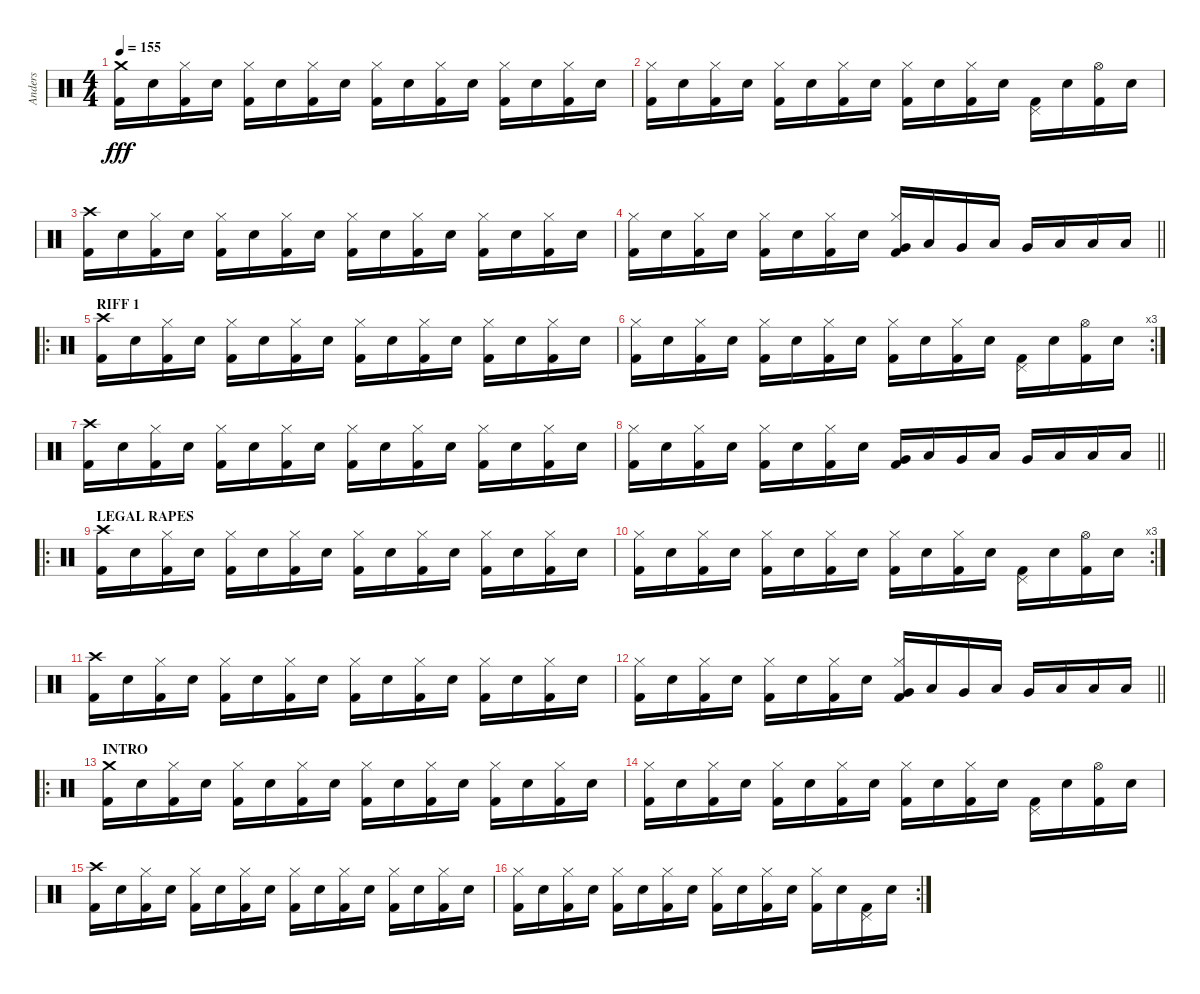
\track ("Anders" "Anders") {instrument percussion}
\staff {score}
\articulation defaults
\ts (4 4)
\tempo 155
\clef neutral
\ks c
("Crash medium (hit)" "Kick (hit) 2").16{dy fff} "Snare (hit) 2".16 ("Hi-Hat (closed)" "Kick (hit) 2").16 "Snare (hit) 2".16 ("Hi-Hat (closed)" "Kick (hit) 2").16 "Snare (hit) 2".16 ("Hi-Hat (closed)" "Kick (hit) 2").16 "Snare (hit) 2".16 ("Hi-Hat (closed)" "Kick (hit) 2").16 "Snare (hit) 2".16 ("Hi-Hat (closed)" "Kick (hit) 2").16 "Snare (hit) 2".16 ("Hi-Hat (closed)" "Kick (hit) 2").16 "Snare (hit) 2".16 ("Hi-Hat (closed)" "Kick (hit) 2").16 "Snare (hit) 2".16 |
("Hi-Hat (closed)" "Kick (hit) 2").16 "Snare (hit) 2".16 ("Hi-Hat (closed)" "Kick (hit) 2").16 "Snare (hit) 2".16 ("Hi-Hat (closed)" "Kick (hit) 2").16 "Snare (hit) 2".16 ("Hi-Hat (closed)" "Kick (hit) 2").16 "Snare (hit) 2".16 ("Hi-Hat (closed)" "Kick (hit) 2").16 "Snare (hit) 2".16 ("Hi-Hat (closed)" "Kick (hit) 2").16 "Snare (hit) 2".16 ("Pedal Hi-Hat (hit)" "Kick (hit) 2").16 "Snare (hit) 2".16 ("Hi-Hat (open)" "Kick (hit) 2").16 "Snare (hit) 2".16 |
("Crash high (hit)" "Kick (hit) 2").16 "Snare (hit) 2".16 ("Hi-Hat (closed)" "Kick (hit) 2").16 "Snare (hit) 2".16 ("Hi-Hat (closed)" "Kick (hit) 2").16 "Snare (hit) 2".16 ("Hi-Hat (closed)" "Kick (hit) 2").16 "Snare (hit) 2".16 ("Hi-Hat (closed)" "Kick (hit) 2").16 "Snare (hit) 2".16 ("Hi-Hat (closed)" "Kick (hit) 2").16 "Snare (hit) 2".16 ("Hi-Hat (closed)" "Kick (hit) 2").16 "Snare (hit) 2".16 ("Hi-Hat (closed)" "Kick (hit) 2").16 "Snare (hit) 2".16 |
\barLineRight lightlight
("Hi-Hat (closed)" "Kick (hit) 2").16 "Snare (hit) 2".16 ("Hi-Hat (closed)" "Kick (hit) 2").16 "Snare (hit) 2".16 ("Hi-Hat (closed)" "Kick (hit) 2").16 "Snare (hit) 2".16 ("Hi-Hat (closed)" "Kick (hit) 2").16 "Snare (hit) 2".16 ("Hi-Hat (closed)" "Very Low Tom (hit)" "Kick (hit) 2").16 "Low Tom (hit)".16 "Very Low Tom (hit)".16 "Low Tom (hit)".16 "Very Low Tom (hit)".16 "Low Tom (hit)".16 "Low Floor Tom (hit)".16 "Low Tom (hit)".16 |
\ro
\section ("" "RIFF 1")
("Crash high (hit)" "Kick (hit) 2").16 "Snare (hit) 2".16 ("Hi-Hat (closed)" "Kick (hit) 2").16 "Snare (hit) 2".16 ("Hi-Hat (closed)" "Kick (hit) 2").16 "Snare (hit) 2".16 ("Hi-Hat (closed)" "Kick (hit) 2").16 "Snare (hit) 2".16 ("Hi-Hat (closed)" "Kick (hit) 2").16 "Snare (hit) 2".16 ("Hi-Hat (closed)" "Kick (hit) 2").16 "Snare (hit) 2".16 ("Hi-Hat (closed)" "Kick (hit) 2").16 "Snare (hit) 2".16 ("Hi-Hat (closed)" "Kick (hit) 2").16 "Snare (hit) 2".16 |
\rc 3
("Hi-Hat (closed)" "Kick (hit) 2").16 "Snare (hit) 2".16 ("Hi-Hat (closed)" "Kick (hit) 2").16 "Snare (hit) 2".16 ("Hi-Hat (closed)" "Kick (hit) 2").16 "Snare (hit) 2".16 ("Hi-Hat (closed)" "Kick (hit) 2").16 "Snare (hit) 2".16 ("Hi-Hat (closed)" "Kick (hit) 2").16 "Snare (hit) 2".16 ("Hi-Hat (closed)" "Kick (hit) 2").16 "Snare (hit) 2".16 ("Pedal Hi-Hat (hit)" "Kick (hit) 2").16 "Snare (hit) 2".16 ("Hi-Hat (open)" "Kick (hit) 2").16 "Snare (hit) 2".16 |
("Crash high (hit)" "Kick (hit) 2").16 "Snare (hit) 2".16 ("Hi-Hat (closed)" "Kick (hit) 2").16 "Snare (hit) 2".16 ("Hi-Hat (closed)" "Kick (hit) 2").16 "Snare (hit) 2".16 ("Hi-Hat (closed)" "Kick (hit) 2").16 "Snare (hit) 2".16 ("Hi-Hat (closed)" "Kick (hit) 2").16 "Snare (hit) 2".16 ("Hi-Hat (closed)" "Kick (hit) 2").16 "Snare (hit) 2".16 ("Hi-Hat (closed)" "Kick (hit) 2").16 "Snare (hit) 2".16 ("Hi-Hat (closed)" "Kick (hit) 2").16 "Snare (hit) 2".16 |
\barLineRight lightlight
("Hi-Hat (closed)" "Kick (hit) 2").16 "Snare (hit) 2".16 ("Hi-Hat (closed)" "Kick (hit) 2").16 "Snare (hit) 2".16 ("Hi-Hat (closed)" "Kick (hit) 2").16 "Snare (hit) 2".16 ("Hi-Hat (closed)" "Kick (hit) 2").16 "Snare (hit) 2".16 ("Very Low Tom (hit)" "Kick (hit) 2").16 "Low Tom (hit)".16 "Very Low Tom (hit)".16 "Low Tom (hit)".16 "Very Low Tom (hit)".16 "Low Tom (hit)".16 "Low Floor Tom (hit)".16 "Low Tom (hit)".16 |
\ro
\section ("" "LEGAL RAPES")
("Crash high (hit)" "Kick (hit) 2").16 "Snare (hit) 2".16 ("Hi-Hat (closed)" "Kick (hit) 2").16 "Snare (hit) 2".16 ("Hi-Hat (closed)" "Kick (hit) 2").16 "Snare (hit) 2".16 ("Hi-Hat (closed)" "Kick (hit) 2").16 "Snare (hit) 2".16 ("Hi-Hat (closed)" "Kick (hit) 2").16 "Snare (hit) 2".16 ("Hi-Hat (closed)" "Kick (hit) 2").16 "Snare (hit) 2".16 ("Hi-Hat (closed)" "Kick (hit) 2").16 "Snare (hit) 2".16 ("Hi-Hat (closed)" "Kick (hit) 2").16 "Snare (hit) 2".16 |
\rc 3
("Hi-Hat (closed)" "Kick (hit) 2").16 "Snare (hit) 2".16 ("Hi-Hat (closed)" "Kick (hit) 2").16 "Snare (hit) 2".16 ("Hi-Hat (closed)" "Kick (hit) 2").16 "Snare (hit) 2".16 ("Hi-Hat (closed)" "Kick (hit) 2").16 "Snare (hit) 2".16 ("Hi-Hat (closed)" "Kick (hit) 2").16 "Snare (hit) 2".16 ("Hi-Hat (closed)" "Kick (hit) 2").16 "Snare (hit) 2".16 ("Pedal Hi-Hat (hit)" "Kick (hit) 2").16 "Snare (hit) 2".16 ("Hi-Hat (open)" "Kick (hit) 2").16 "Snare (hit) 2".16 |
("Crash high (hit)" "Kick (hit) 2").16 "Snare (hit) 2".16 ("Hi-Hat (closed)" "Kick (hit) 2").16 "Snare (hit) 2".16 ("Hi-Hat (closed)" "Kick (hit) 2").16 "Snare (hit) 2".16 ("Hi-Hat (closed)" "Kick (hit) 2").16 "Snare (hit) 2".16 ("Hi-Hat (closed)" "Kick (hit) 2").16 "Snare (hit) 2".16 ("Hi-Hat (closed)" "Kick (hit) 2").16 "Snare (hit) 2".16 ("Hi-Hat (closed)" "Kick (hit) 2").16 "Snare (hit) 2".16 ("Hi-Hat (closed)" "Kick (hit) 2").16 "Snare (hit) 2".16 |
\barLineRight lightlight
("Hi-Hat (closed)" "Kick (hit) 2").16 "Snare (hit) 2".16 ("Hi-Hat (closed)" "Kick (hit) 2").16 "Snare (hit) 2".16 ("Hi-Hat (closed)" "Kick (hit) 2").16 "Snare (hit) 2".16 ("Hi-Hat (closed)" "Kick (hit) 2").16 "Snare (hit) 2".16 ("Hi-Hat (closed)" "Very Low Tom (hit)" "Kick (hit) 2").16 "Low Tom (hit)".16 "Very Low Tom (hit)".16 "Low Tom (hit)".16 "Very Low Tom (hit)".16 "Low Tom (hit)".16 "Low Floor Tom (hit)".16 "Low Tom (hit)".16 |
\ro
\section ("" "INTRO")
("Crash medium (hit)" "Kick (hit) 2").16 "Snare (hit) 2".16 ("Hi-Hat (closed)" "Kick (hit) 2").16 "Snare (hit) 2".16 ("Hi-Hat (closed)" "Kick (hit) 2").16 "Snare (hit) 2".16 ("Hi-Hat (closed)" "Kick (hit) 2").16 "Snare (hit) 2".16 ("Hi-Hat (closed)" "Kick (hit) 2").16 "Snare (hit) 2".16 ("Hi-Hat (closed)" "Kick (hit) 2").16 "Snare (hit) 2".16 ("Hi-Hat (closed)" "Kick (hit) 2").16 "Snare (hit) 2".16 ("Hi-Hat (closed)" "Kick (hit) 2").16 "Snare (hit) 2".16 |
("Hi-Hat (closed)" "Kick (hit) 2").16 "Snare (hit) 2".16 ("Hi-Hat (closed)" "Kick (hit) 2").16 "Snare (hit) 2".16 ("Hi-Hat (closed)" "Kick (hit) 2").16 "Snare (hit) 2".16 ("Hi-Hat (closed)" "Kick (hit) 2").16 "Snare (hit) 2".16 ("Hi-Hat (closed)" "Kick (hit) 2").16 "Snare (hit) 2".16 ("Hi-Hat (closed)" "Kick (hit) 2").16 "Snare (hit) 2".16 ("Pedal Hi-Hat (hit)" "Kick (hit) 2").16 "Snare (hit) 2".16 ("Hi-Hat (open)" "Kick (hit) 2").16 "Snare (hit) 2".16 |
("Crash high (hit)" "Kick (hit) 2").16 "Snare (hit) 2".16 ("Hi-Hat (closed)" "Kick (hit) 2").16 "Snare (hit) 2".16 ("Hi-Hat (closed)" "Kick (hit) 2").16 "Snare (hit) 2".16 ("Hi-Hat (closed)" "Kick (hit) 2").16 "Snare (hit) 2".16 ("Hi-Hat (closed)" "Kick (hit) 2").16 "Snare (hit) 2".16 ("Hi-Hat (closed)" "Kick (hit) 2").16 "Snare (hit) 2".16 ("Hi-Hat (closed)" "Kick (hit) 2").16 "Snare (hit) 2".16 ("Hi-Hat (closed)" "Kick (hit) 2").16 "Snare (hit) 2".16 |
\rc 2
("Hi-Hat (closed)" "Kick (hit) 2").16 "Snare (hit) 2".16 ("Hi-Hat (closed)" "Kick (hit) 2").16 "Snare (hit) 2".16 ("Hi-Hat (closed)" "Kick (hit) 2").16 "Snare (hit) 2".16 ("Hi-Hat (closed)" "Kick (hit) 2").16 "Snare (hit) 2".16 ("Hi-Hat (closed)" "Kick (hit) 2").16 "Snare (hit) 2".16 ("Hi-Hat (closed)" "Kick (hit) 2").16 "Snare (hit) 2".16 ("Hi-Hat (closed)" "Kick (hit) 2").16 "Snare (hit) 2".16 ("Pedal Hi-Hat (hit)" "Kick (hit) 2").16 "Snare (hit) 2".16
